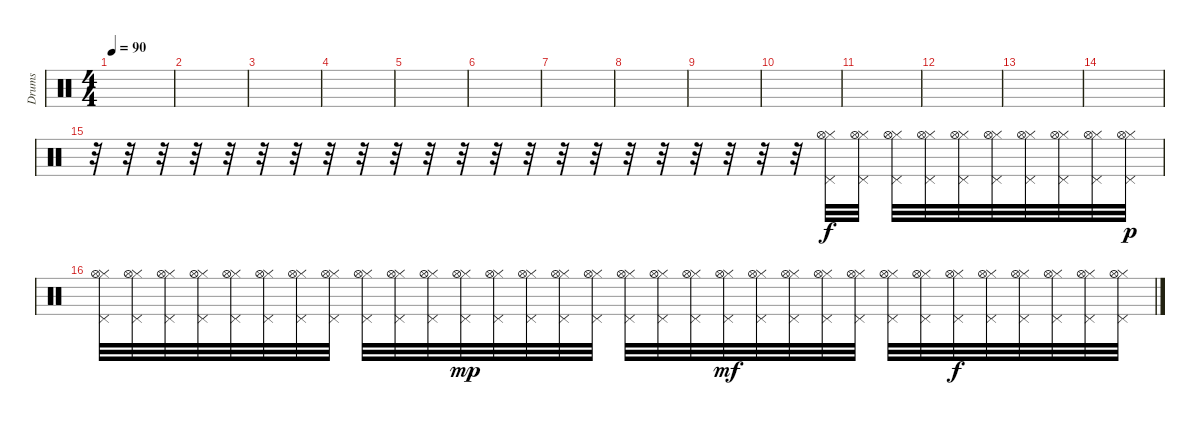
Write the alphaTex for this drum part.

\track ("Drums" "Drums") {instrument percussion}
\staff {score}
\articulation defaults
\ts (4 4)
\tempo 90
\clef neutral
\ks c
|
|
|
|
|
|
|
|
|
|
|
|
|
|
r.32 r.32 r.32 r.32 r.32 r.32 r.32 r.32 r.32 r.32 r.32 r.32 r.32 r.32 r.32 r.32 r.32 r.32 r.32 r.32 r.32 r.32 ("Hi-Hat (closed)" "Pedal Hi-Hat (hit)" "Hi-Hat (open)").32 ("Hi-Hat (closed)" "Pedal Hi-Hat (hit)" "Hi-Hat (open)").32 ("Hi-Hat (closed)" "Pedal Hi-Hat (hit)" "Hi-Hat (open)").32 ("Hi-Hat (closed)" "Pedal Hi-Hat (hit)" "Hi-Hat (open)").32 ("Hi-Hat (closed)" "Pedal Hi-Hat (hit)" "Hi-Hat (open)").32 ("Hi-Hat (closed)" "Pedal Hi-Hat (hit)" "Hi-Hat (open)").32 ("Hi-Hat (closed)" "Pedal Hi-Hat (hit)" "Hi-Hat (open)").32 ("Hi-Hat (closed)" "Pedal Hi-Hat (hit)" "Hi-Hat (open)").32 ("Hi-Hat (closed)" "Pedal Hi-Hat (hit)" "Hi-Hat (open)").32 ("Hi-Hat (closed)" "Pedal Hi-Hat (hit)" "Hi-Hat (open)").32{dy p} |
("Hi-Hat (closed)" "Pedal Hi-Hat (hit)" "Hi-Hat (open)").32 ("Hi-Hat (closed)" "Pedal Hi-Hat (hit)" "Hi-Hat (open)").32 ("Hi-Hat (closed)" "Pedal Hi-Hat (hit)" "Hi-Hat (open)").32 ("Hi-Hat (closed)" "Pedal Hi-Hat (hit)" "Hi-Hat (open)").32 ("Hi-Hat (closed)" "Pedal Hi-Hat (hit)" "Hi-Hat (open)").32 ("Hi-Hat (closed)" "Pedal Hi-Hat (hit)" "Hi-Hat (open)").32 ("Hi-Hat (closed)" "Pedal Hi-Hat (hit)" "Hi-Hat (open)").32 ("Hi-Hat (closed)" "Pedal Hi-Hat (hit)" "Hi-Hat (open)").32 ("Hi-Hat (closed)" "Pedal Hi-Hat (hit)" "Hi-Hat (open)").32 ("Hi-Hat (closed)" "Pedal Hi-Hat (hit)" "Hi-Hat (open)").32 ("Hi-Hat (closed)" "Pedal Hi-Hat (hit)" "Hi-Hat (open)").32 ("Hi-Hat (closed)" "Pedal Hi-Hat (hit)" "Hi-Hat (open)").32{dy mp} ("Hi-Hat (closed)" "Pedal Hi-Hat (hit)" "Hi-Hat (open)").32 ("Hi-Hat (closed)" "Pedal Hi-Hat (hit)" "Hi-Hat (open)").32 ("Hi-Hat (closed)" "Pedal Hi-Hat (hit)" "Hi-Hat (open)").32 ("Hi-Hat (closed)" "Pedal Hi-Hat (hit)" "Hi-Hat (open)").32 ("Hi-Hat (closed)" "Pedal Hi-Hat (hit)" "Hi-Hat (open)").32 ("Hi-Hat (closed)" "Pedal Hi-Hat (hit)" "Hi-Hat (open)").32 ("Hi-Hat (closed)" "Pedal Hi-Hat (hit)" "Hi-Hat (open)").32 ("Hi-Hat (closed)" "Pedal Hi-Hat (hit)" "Hi-Hat (open)").32{dy mf} ("Hi-Hat (closed)" "Pedal Hi-Hat (hit)" "Hi-Hat (open)").32 ("Hi-Hat (closed)" "Pedal Hi-Hat (hit)" "Hi-Hat (open)").32 ("Hi-Hat (closed)" "Pedal Hi-Hat (hit)" "Hi-Hat (open)").32 ("Hi-Hat (closed)" "Pedal Hi-Hat (hit)" "Hi-Hat (open)").32 ("Hi-Hat (closed)" "Pedal Hi-Hat (hit)" "Hi-Hat (open)").32 ("Hi-Hat (closed)" "Pedal Hi-Hat (hit)" "Hi-Hat (open)").32 ("Hi-Hat (closed)" "Pedal Hi-Hat (hit)" "Hi-Hat (open)").32{dy f} ("Hi-Hat (closed)" "Pedal Hi-Hat (hit)" "Hi-Hat (open)").32 ("Hi-Hat (closed)" "Pedal Hi-Hat (hit)" "Hi-Hat (open)").32 ("Hi-Hat (closed)" "Pedal Hi-Hat (hit)" "Hi-Hat (open)").32 ("Hi-Hat (closed)" "Pedal Hi-Hat (hit)" "Hi-Hat (open)").32 ("Hi-Hat (closed)" "Pedal Hi-Hat (hit)" "Hi-Hat (open)").32
